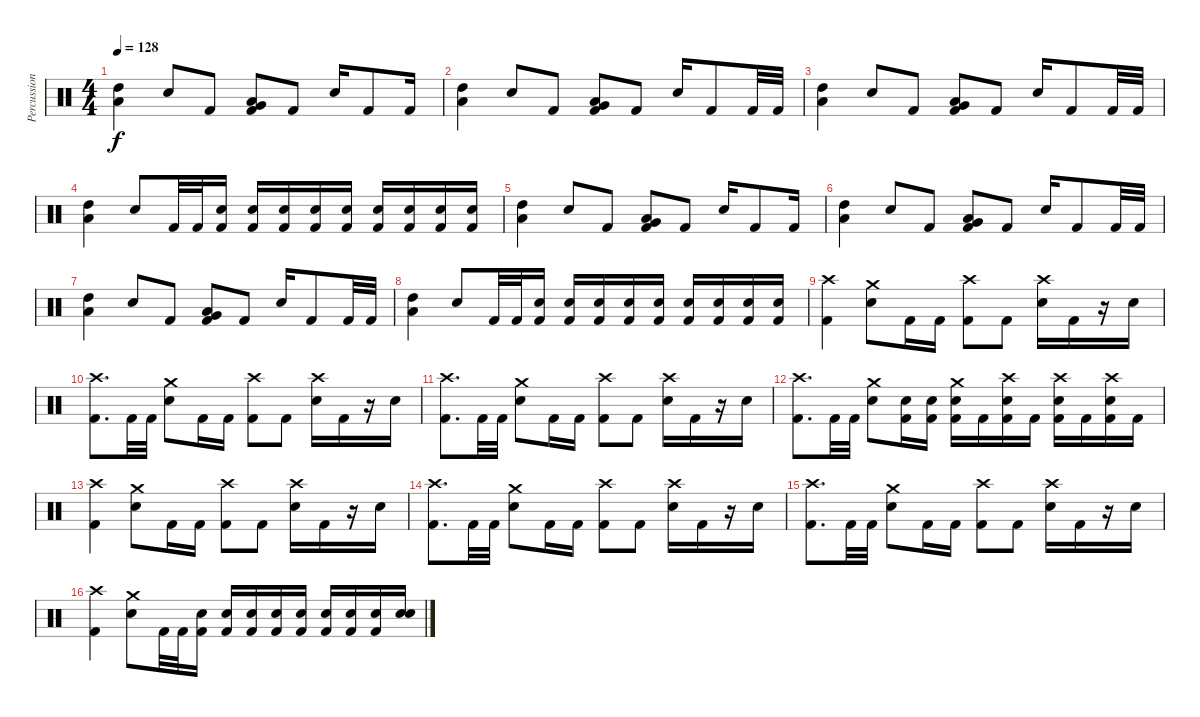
\track ("Percussion" "Percussion") {instrument percussion}
\staff {score}
\articulation defaults
\ts (4 4)
\tempo 128
\clef neutral
\ks c
("Low Tom (hit)" "High Tom (hit)").4{dy f} "Snare (hit) 2".8 "Kick (hit) 2".8 ("Low Tom (hit)" "Very Low Tom (hit)" "Kick (hit) 2").8 "Kick (hit) 2".8 "Snare (hit) 2".16 "Kick (hit) 2".8 "Kick (hit) 2".16 |
("Low Tom (hit)" "High Tom (hit)").4 "Snare (hit) 2".8 "Kick (hit) 2".8 ("Low Tom (hit)" "Very Low Tom (hit)" "Kick (hit) 2").8 "Kick (hit) 2".8 "Snare (hit) 2".16 "Kick (hit) 2".8 "Kick (hit) 2".32 "Kick (hit) 2".32 |
("Low Tom (hit)" "High Tom (hit)").4 "Snare (hit) 2".8 "Kick (hit) 2".8 ("Low Tom (hit)" "Very Low Tom (hit)" "Kick (hit) 2").8 "Kick (hit) 2".8 "Snare (hit) 2".16 "Kick (hit) 2".8 "Kick (hit) 2".32 "Kick (hit) 2".32 |
("Low Tom (hit)" "High Tom (hit)").4 "Snare (hit) 2".8 "Kick (hit) 2".32 "Kick (hit) 2".32 ("Snare (hit) 2" "Kick (hit) 2").16 ("Snare (hit) 2" "Kick (hit) 2").16 ("Snare (hit) 2" "Kick (hit) 2").16 ("Snare (hit) 2" "Kick (hit) 2").16 ("Snare (hit) 2" "Kick (hit) 2").16 ("Snare (hit) 2" "Kick (hit) 2").16 ("Snare (hit) 2" "Kick (hit) 2").16 ("Snare (hit) 2" "Kick (hit) 2").16 ("Snare (hit) 2" "Kick (hit) 2").16 |
("Low Tom (hit)" "High Tom (hit)").4 "Snare (hit) 2".8 "Kick (hit) 2".8 ("Low Tom (hit)" "Very Low Tom (hit)" "Kick (hit) 2").8 "Kick (hit) 2".8 "Snare (hit) 2".16 "Kick (hit) 2".8 "Kick (hit) 2".16 |
("Low Tom (hit)" "High Tom (hit)").4 "Snare (hit) 2".8 "Kick (hit) 2".8 ("Low Tom (hit)" "Very Low Tom (hit)" "Kick (hit) 2").8 "Kick (hit) 2".8 "Snare (hit) 2".16 "Kick (hit) 2".8 "Kick (hit) 2".32 "Kick (hit) 2".32 |
("Low Tom (hit)" "High Tom (hit)").4 "Snare (hit) 2".8 "Kick (hit) 2".8 ("Low Tom (hit)" "Very Low Tom (hit)" "Kick (hit) 2").8 "Kick (hit) 2".8 "Snare (hit) 2".16 "Kick (hit) 2".8 "Kick (hit) 2".32 "Kick (hit) 2".32 |
("Low Tom (hit)" "High Tom (hit)").4 "Snare (hit) 2".8 "Kick (hit) 2".32 "Kick (hit) 2".32 ("Snare (hit) 2" "Kick (hit) 2").16 ("Snare (hit) 2" "Kick (hit) 2").16 ("Snare (hit) 2" "Kick (hit) 2").16 ("Snare (hit) 2" "Kick (hit) 2").16 ("Snare (hit) 2" "Kick (hit) 2").16 ("Snare (hit) 2" "Kick (hit) 2").16 ("Snare (hit) 2" "Kick (hit) 2").16 ("Snare (hit) 2" "Kick (hit) 2").16 ("Snare (hit) 2" "Kick (hit) 2").16 |
("Crash high (hit)" "Kick (hit) 2").4 ("Crash medium (hit)" "Snare (hit) 2").8 "Kick (hit) 2".16 "Kick (hit) 2".16 ("Crash high (hit)" "Kick (hit) 2").8 "Kick (hit) 2".8 ("Crash high (hit)" "Snare (hit) 2").16 "Kick (hit) 2".16 r.16 "Snare (hit) 2".16 |
("Crash high (hit)" "Kick (hit) 2").8{d} "Kick (hit) 2".32 "Kick (hit) 2".32 ("Crash medium (hit)" "Snare (hit) 2").8 "Kick (hit) 2".16 "Kick (hit) 2".16 ("Crash high (hit)" "Kick (hit) 2").8 "Kick (hit) 2".8 ("Crash high (hit)" "Snare (hit) 2").16 "Kick (hit) 2".16 r.16 "Snare (hit) 2".16 |
("Crash high (hit)" "Kick (hit) 2").8{d} "Kick (hit) 2".32 "Kick (hit) 2".32 ("Crash medium (hit)" "Snare (hit) 2").8 "Kick (hit) 2".16 "Kick (hit) 2".16 ("Crash high (hit)" "Kick (hit) 2").8 "Kick (hit) 2".8 ("Crash high (hit)" "Snare (hit) 2").16 "Kick (hit) 2".16 r.16 "Snare (hit) 2".16 |
("Crash high (hit)" "Kick (hit) 2").8{d} "Kick (hit) 2".32 "Kick (hit) 2".32 ("Crash medium (hit)" "Snare (hit) 2").8 ("Snare (hit) 2" "Kick (hit) 2").16 ("Snare (hit) 2" "Kick (hit) 2").16 ("Crash medium (hit)" "Snare (hit) 2" "Kick (hit) 2").16 "Kick (hit) 2".16 ("Crash high (hit)" "Snare (hit) 2" "Kick (hit) 2").16 "Kick (hit) 2".16 ("Crash high (hit)" "Snare (hit) 2" "Kick (hit) 2").16 "Kick (hit) 2".16 ("Crash high (hit)" "Snare (hit) 2" "Kick (hit) 2").16 "Kick (hit) 2".16 |
("Crash high (hit)" "Kick (hit) 2").4 ("Crash medium (hit)" "Snare (hit) 2").8 "Kick (hit) 2".16 "Kick (hit) 2".16 ("Crash high (hit)" "Kick (hit) 2").8 "Kick (hit) 2".8 ("Crash high (hit)" "Snare (hit) 2").16 "Kick (hit) 2".16 r.16 "Snare (hit) 2".16 |
("Crash high (hit)" "Kick (hit) 2").8{d} "Kick (hit) 2".32 "Kick (hit) 2".32 ("Crash medium (hit)" "Snare (hit) 2").8 "Kick (hit) 2".16 "Kick (hit) 2".16 ("Crash high (hit)" "Kick (hit) 2").8 "Kick (hit) 2".8 ("Crash high (hit)" "Snare (hit) 2").16 "Kick (hit) 2".16 r.16 "Snare (hit) 2".16 |
("Crash high (hit)" "Kick (hit) 2").8{d} "Kick (hit) 2".32 "Kick (hit) 2".32 ("Crash medium (hit)" "Snare (hit) 2").8 "Kick (hit) 2".16 "Kick (hit) 2".16 ("Crash high (hit)" "Kick (hit) 2").8 "Kick (hit) 2".8 ("Crash high (hit)" "Snare (hit) 2").16 "Kick (hit) 2".16 r.16 "Snare (hit) 2".16 |
("Crash high (hit)" "Kick (hit) 2").4 ("Crash medium (hit)" "Snare (hit) 2").8 "Kick (hit) 2".32 "Kick (hit) 2".32 ("Snare (hit) 2" "Kick (hit) 2").16 ("Snare (hit) 2" "Kick (hit) 2").16 ("Snare (hit) 2" "Kick (hit) 2").16 ("Snare (hit) 2" "Kick (hit) 2").16 ("Snare (hit) 2" "Kick (hit) 2").16 ("Snare (hit) 2" "Kick (hit) 2").16 ("Snare (hit) 2" "Kick (hit) 2").16 ("Snare (hit) 2" "Kick (hit) 2").16 ("Snare (hit) 2" "Snare (hit) 2").16
